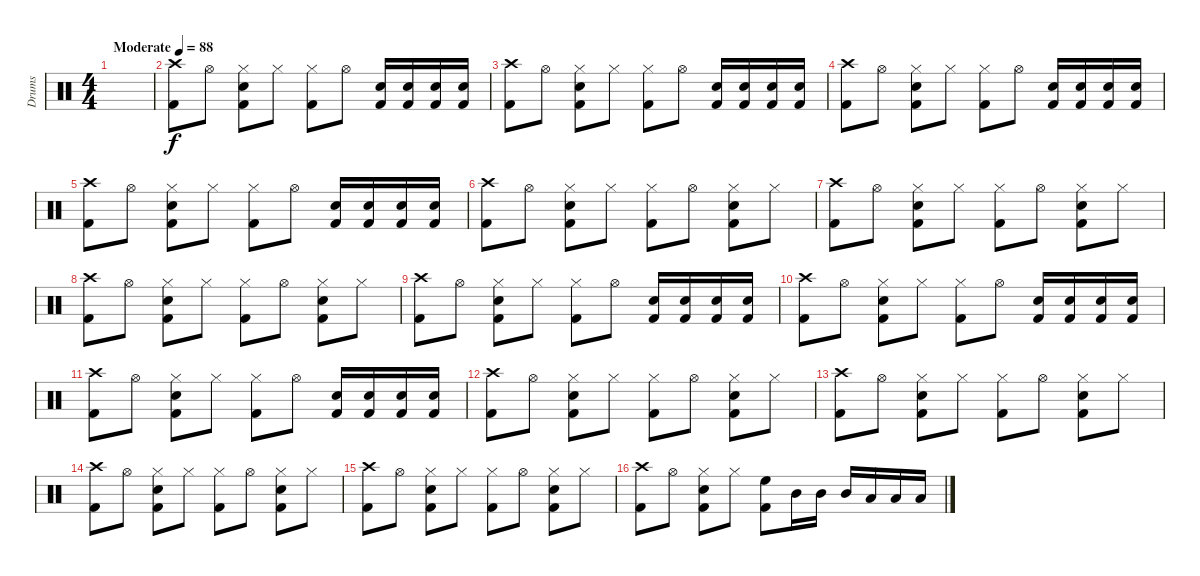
\track ("Drums" "Drums") {instrument percussion}
\staff {score}
\articulation defaults
\ts (4 4)
\tempo (88 "Moderate")
\clef neutral
\ks c
|
("Crash high (hit)" "Kick (hit) 2").8 "Hi-Hat (open)".8 ("Hi-Hat (closed)" "Snare (hit) 2" "Kick (hit) 2").8 "Hi-Hat (closed)".8 ("Hi-Hat (closed)" "Kick (hit) 2").8 "Hi-Hat (open)".8 ("Snare (hit) 2" "Kick (hit) 2").16 ("Snare (hit) 2" "Kick (hit) 2").16 ("Snare (hit) 2" "Kick (hit) 2").16 ("Snare (hit) 2" "Kick (hit) 2").16 |
("Crash high (hit)" "Kick (hit) 2").8 "Hi-Hat (open)".8 ("Hi-Hat (closed)" "Snare (hit) 2" "Kick (hit) 2").8 "Hi-Hat (closed)".8 ("Hi-Hat (closed)" "Kick (hit) 2").8 "Hi-Hat (open)".8 ("Snare (hit) 2" "Kick (hit) 2").16 ("Snare (hit) 2" "Kick (hit) 2").16 ("Snare (hit) 2" "Kick (hit) 2").16 ("Snare (hit) 2" "Kick (hit) 2").16 |
("Crash high (hit)" "Kick (hit) 2").8 "Hi-Hat (open)".8 ("Hi-Hat (closed)" "Snare (hit) 2" "Kick (hit) 2").8 "Hi-Hat (closed)".8 ("Hi-Hat (closed)" "Kick (hit) 2").8 "Hi-Hat (open)".8 ("Snare (hit) 2" "Kick (hit) 2").16 ("Snare (hit) 2" "Kick (hit) 2").16 ("Snare (hit) 2" "Kick (hit) 2").16 ("Snare (hit) 2" "Kick (hit) 2").16 |
("Crash high (hit)" "Kick (hit) 2").8 "Hi-Hat (open)".8 ("Hi-Hat (closed)" "Snare (hit) 2" "Kick (hit) 2").8 "Hi-Hat (closed)".8 ("Hi-Hat (closed)" "Kick (hit) 2").8 "Hi-Hat (open)".8 ("Snare (hit) 2" "Kick (hit) 2").16 ("Snare (hit) 2" "Kick (hit) 2").16 ("Snare (hit) 2" "Kick (hit) 2").16 ("Snare (hit) 2" "Kick (hit) 2").16 |
("Crash high (hit)" "Kick (hit) 2").8 "Hi-Hat (open)".8 ("Hi-Hat (closed)" "Snare (hit) 2" "Kick (hit) 2").8 "Hi-Hat (closed)".8 ("Hi-Hat (closed)" "Kick (hit) 2").8 "Hi-Hat (open)".8 ("Hi-Hat (closed)" "Snare (hit) 2" "Kick (hit) 2").8 "Hi-Hat (closed)".8 |
("Crash high (hit)" "Kick (hit) 2").8 "Hi-Hat (open)".8 ("Hi-Hat (closed)" "Snare (hit) 2" "Kick (hit) 2").8 "Hi-Hat (closed)".8 ("Hi-Hat (closed)" "Kick (hit) 2").8 "Hi-Hat (open)".8 ("Hi-Hat (closed)" "Snare (hit) 2" "Kick (hit) 2").8 "Hi-Hat (closed)".8 |
("Crash high (hit)" "Kick (hit) 2").8 "Hi-Hat (open)".8 ("Hi-Hat (closed)" "Snare (hit) 2" "Kick (hit) 2").8 "Hi-Hat (closed)".8 ("Hi-Hat (closed)" "Kick (hit) 2").8 "Hi-Hat (open)".8 ("Hi-Hat (closed)" "Snare (hit) 2" "Kick (hit) 2").8 "Hi-Hat (closed)".8 |
("Crash high (hit)" "Kick (hit) 2").8 "Hi-Hat (open)".8 ("Hi-Hat (closed)" "Snare (hit) 2" "Kick (hit) 2").8 "Hi-Hat (closed)".8 ("Hi-Hat (closed)" "Kick (hit) 2").8 "Hi-Hat (open)".8 ("Snare (hit) 2" "Kick (hit) 2").16 ("Snare (hit) 2" "Kick (hit) 2").16 ("Snare (hit) 2" "Kick (hit) 2").16 ("Snare (hit) 2" "Kick (hit) 2").16 |
("Crash high (hit)" "Kick (hit) 2").8 "Hi-Hat (open)".8 ("Hi-Hat (closed)" "Snare (hit) 2" "Kick (hit) 2").8 "Hi-Hat (closed)".8 ("Hi-Hat (closed)" "Kick (hit) 2").8 "Hi-Hat (open)".8 ("Snare (hit) 2" "Kick (hit) 2").16 ("Snare (hit) 2" "Kick (hit) 2").16 ("Snare (hit) 2" "Kick (hit) 2").16 ("Snare (hit) 2" "Kick (hit) 2").16 |
("Crash high (hit)" "Kick (hit) 2").8 "Hi-Hat (open)".8 ("Hi-Hat (closed)" "Snare (hit) 2" "Kick (hit) 2").8 "Hi-Hat (closed)".8 ("Hi-Hat (closed)" "Kick (hit) 2").8 "Hi-Hat (open)".8 ("Snare (hit) 2" "Kick (hit) 2").16 ("Snare (hit) 2" "Kick (hit) 2").16 ("Snare (hit) 2" "Kick (hit) 2").16 ("Snare (hit) 2" "Kick (hit) 2").16 |
("Crash high (hit)" "Kick (hit) 2").8 "Hi-Hat (open)".8 ("Hi-Hat (closed)" "Snare (hit) 2" "Kick (hit) 2").8 "Hi-Hat (closed)".8 ("Hi-Hat (closed)" "Kick (hit) 2").8 "Hi-Hat (open)".8 ("Hi-Hat (closed)" "Snare (hit) 2" "Kick (hit) 2").8 "Hi-Hat (closed)".8 |
("Crash high (hit)" "Kick (hit) 2").8 "Hi-Hat (open)".8 ("Hi-Hat (closed)" "Snare (hit) 2" "Kick (hit) 2").8 "Hi-Hat (closed)".8 ("Hi-Hat (closed)" "Kick (hit) 2").8 "Hi-Hat (open)".8 ("Hi-Hat (closed)" "Snare (hit) 2" "Kick (hit) 2").8 "Hi-Hat (closed)".8 |
("Crash high (hit)" "Kick (hit) 2").8 "Hi-Hat (open)".8 ("Hi-Hat (closed)" "Snare (hit) 2" "Kick (hit) 2").8 "Hi-Hat (closed)".8 ("Hi-Hat (closed)" "Kick (hit) 2").8 "Hi-Hat (open)".8 ("Hi-Hat (closed)" "Snare (hit) 2" "Kick (hit) 2").8 "Hi-Hat (closed)".8 |
("Crash high (hit)" "Kick (hit) 2").8 "Hi-Hat (open)".8 ("Hi-Hat (closed)" "Snare (hit) 2" "Kick (hit) 2").8 "Hi-Hat (closed)".8 ("Hi-Hat (closed)" "Kick (hit) 2").8 "Hi-Hat (open)".8 ("Hi-Hat (closed)" "Snare (hit) 2" "Kick (hit) 2").8 "Hi-Hat (closed)".8 |
("Crash high (hit)" "Kick (hit) 2").8 "Hi-Hat (open)".8 ("Hi-Hat (closed)" "Snare (hit) 2" "Kick (hit) 2").8 "Hi-Hat (closed)".8 ("High Floor Tom (hit)" "Kick (hit) 2").8 "Mid Tom (hit)".16 "Mid Tom (hit)".16 "Mid Tom (hit)".16 "Low Tom (hit)".16 "Low Tom (hit)".16 "Low Tom (hit)".16
